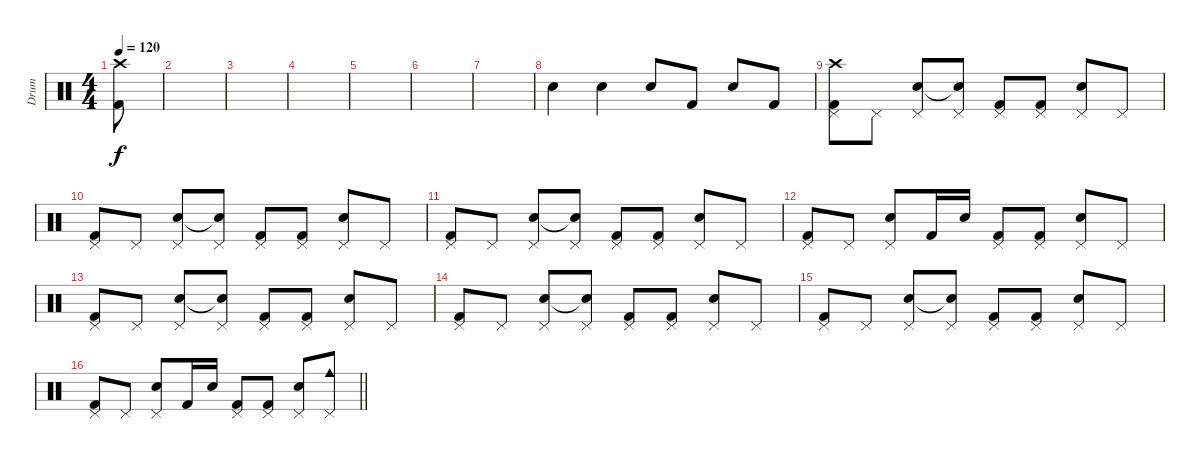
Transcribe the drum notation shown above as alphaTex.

\track ("Drum" "Drum") {instrument percussion}
\staff {score}
\articulation defaults
\ts (4 4)
\tempo 120
\clef neutral
\ks c
("Crash high (hit)" "Kick (hit) 2").8{dy f} |
|
|
|
|
|
|
"Snare (hit) 2".4 "Snare (hit) 2".4 "Snare (hit) 2".8 "Kick (hit) 2".8 "Snare (hit) 2".8 "Kick (hit) 2".8 |
("Pedal Hi-Hat (hit)" "Crash high (hit)" "Kick (hit) 2").8 "Pedal Hi-Hat (hit)".8 ("Pedal Hi-Hat (hit)" "Snare (hit) 2").8 ("Pedal Hi-Hat (hit)" "Snare (hit)"{t}).8 ("Pedal Hi-Hat (hit)" "Kick (hit) 2").8 ("Pedal Hi-Hat (hit)" "Kick (hit) 2").8 ("Pedal Hi-Hat (hit)" "Snare (hit) 2").8 "Pedal Hi-Hat (hit)".8 |
("Pedal Hi-Hat (hit)" "Kick (hit) 2").8 "Pedal Hi-Hat (hit)".8 ("Pedal Hi-Hat (hit)" "Snare (hit) 2").8 ("Pedal Hi-Hat (hit)" "Snare (hit)"{t}).8 ("Pedal Hi-Hat (hit)" "Kick (hit) 2").8 ("Pedal Hi-Hat (hit)" "Kick (hit) 2").8 ("Pedal Hi-Hat (hit)" "Snare (hit) 2").8 "Pedal Hi-Hat (hit)".8 |
("Pedal Hi-Hat (hit)" "Kick (hit) 2").8 "Pedal Hi-Hat (hit)".8 ("Pedal Hi-Hat (hit)" "Snare (hit) 2").8 ("Pedal Hi-Hat (hit)" "Snare (hit)"{t}).8 ("Pedal Hi-Hat (hit)" "Kick (hit) 2").8 ("Pedal Hi-Hat (hit)" "Kick (hit) 2").8 ("Pedal Hi-Hat (hit)" "Snare (hit) 2").8 "Pedal Hi-Hat (hit)".8 |
("Pedal Hi-Hat (hit)" "Kick (hit) 2").8 "Pedal Hi-Hat (hit)".8 ("Pedal Hi-Hat (hit)" "Snare (hit) 2").8 "Kick (hit) 2".16 "Snare (hit) 2".16 ("Pedal Hi-Hat (hit)" "Kick (hit) 2").8 ("Pedal Hi-Hat (hit)" "Kick (hit) 2").8 ("Pedal Hi-Hat (hit)" "Snare (hit) 2").8 "Pedal Hi-Hat (hit)".8 |
("Pedal Hi-Hat (hit)" "Kick (hit) 2").8 "Pedal Hi-Hat (hit)".8 ("Pedal Hi-Hat (hit)" "Snare (hit) 2").8 ("Pedal Hi-Hat (hit)" "Snare (hit)"{t}).8 ("Pedal Hi-Hat (hit)" "Kick (hit) 2").8 ("Pedal Hi-Hat (hit)" "Kick (hit) 2").8 ("Pedal Hi-Hat (hit)" "Snare (hit) 2").8 "Pedal Hi-Hat (hit)".8 |
("Pedal Hi-Hat (hit)" "Kick (hit) 2").8 "Pedal Hi-Hat (hit)".8 ("Pedal Hi-Hat (hit)" "Snare (hit) 2").8 ("Pedal Hi-Hat (hit)" "Snare (hit)"{t}).8 ("Pedal Hi-Hat (hit)" "Kick (hit) 2").8 ("Pedal Hi-Hat (hit)" "Kick (hit) 2").8 ("Pedal Hi-Hat (hit)" "Snare (hit) 2").8 "Pedal Hi-Hat (hit)".8 |
("Pedal Hi-Hat (hit)" "Kick (hit) 2").8 "Pedal Hi-Hat (hit)".8 ("Pedal Hi-Hat (hit)" "Snare (hit) 2").8 ("Pedal Hi-Hat (hit)" "Snare (hit)"{t}).8 ("Pedal Hi-Hat (hit)" "Kick (hit) 2").8 ("Pedal Hi-Hat (hit)" "Kick (hit) 2").8 ("Pedal Hi-Hat (hit)" "Snare (hit) 2").8 "Pedal Hi-Hat (hit)".8 |
\barLineRight lightlight
("Pedal Hi-Hat (hit)" "Kick (hit) 2").8 "Pedal Hi-Hat (hit)".8 ("Pedal Hi-Hat (hit)" "Snare (hit) 2").8 "Kick (hit) 2".16 "Snare (hit) 2".16 ("Pedal Hi-Hat (hit)" "Kick (hit) 2").8 ("Pedal Hi-Hat (hit)" "Kick (hit) 2").8 ("Pedal Hi-Hat (hit)" "Snare (hit) 2").8 ("Pedal Hi-Hat (hit)" "Cowbell medium (hit)").8
